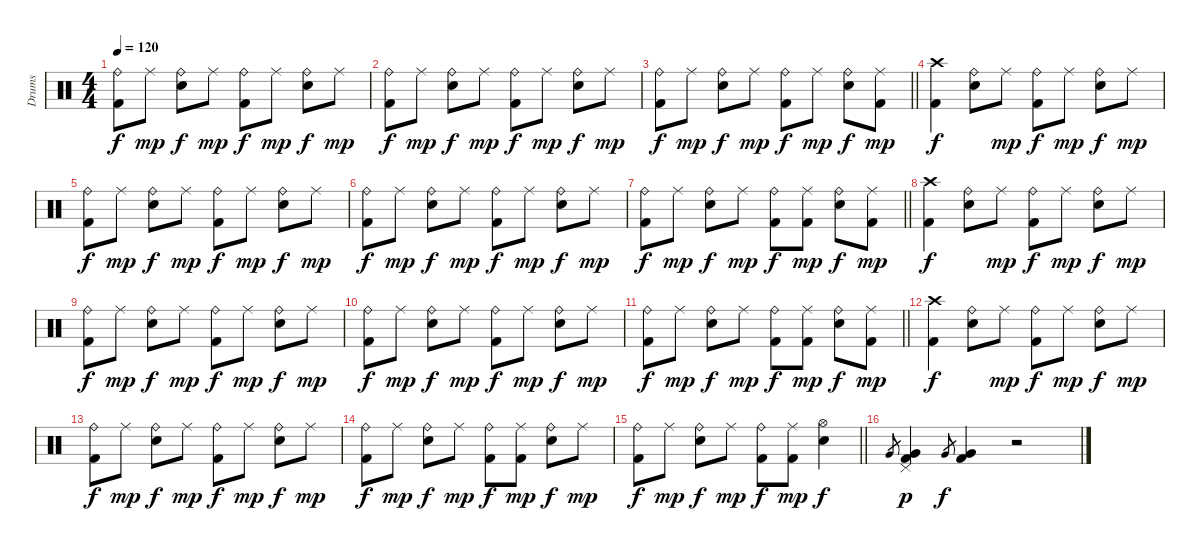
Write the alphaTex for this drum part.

\track ("Drums" "Drums") {instrument percussion}
\staff {score}
\articulation defaults
\ts (4 4)
\tempo 120
\clef neutral
\ks c
("Ride (bell)" "Kick (hit) 2").8{dy f} "Ride (middle)".8{dy mp} ("Ride (bell)" "Snare (hit) 2").8{dy f} "Ride (middle)".8{dy mp} ("Ride (bell)" "Kick (hit) 2").8{dy f} "Ride (middle)".8{dy mp} ("Ride (bell)" "Snare (hit) 2").8{dy f} "Ride (middle)".8{dy mp} |
("Ride (bell)" "Kick (hit) 2").8{dy f} "Ride (middle)".8{dy mp} ("Ride (bell)" "Snare (hit) 2").8{dy f} "Ride (middle)".8{dy mp} ("Ride (bell)" "Kick (hit) 2").8{dy f} "Ride (middle)".8{dy mp} ("Ride (bell)" "Snare (hit) 2").8{dy f} "Ride (middle)".8{dy mp} |
\barLineRight lightlight
("Ride (bell)" "Kick (hit) 2").8{dy f} "Ride (middle)".8{dy mp} ("Ride (bell)" "Snare (hit) 2").8{dy f} "Ride (middle)".8{dy mp} ("Ride (bell)" "Kick (hit) 2").8{dy f} "Ride (middle)".8{dy mp} ("Ride (bell)" "Snare (hit) 2").8{dy f} ("Ride (middle)" "Kick (hit) 2").8{dy mp} |
("Crash high (hit)" "Kick (hit) 2").4{dy f} ("Ride (bell)" "Snare (hit) 2").8 "Ride (middle)".8{dy mp} ("Ride (bell)" "Kick (hit) 2").8{dy f} "Ride (middle)".8{dy mp} ("Ride (bell)" "Snare (hit) 2").8{dy f} "Ride (middle)".8{dy mp} |
("Ride (bell)" "Kick (hit) 2").8{dy f} "Ride (middle)".8{dy mp} ("Ride (bell)" "Snare (hit) 2").8{dy f} "Ride (middle)".8{dy mp} ("Ride (bell)" "Kick (hit) 2").8{dy f} "Ride (middle)".8{dy mp} ("Ride (bell)" "Snare (hit) 2").8{dy f} "Ride (middle)".8{dy mp} |
("Ride (bell)" "Kick (hit) 2").8{dy f} "Ride (middle)".8{dy mp} ("Ride (bell)" "Snare (hit) 2").8{dy f} "Ride (middle)".8{dy mp} ("Ride (bell)" "Kick (hit) 2").8{dy f} "Ride (middle)".8{dy mp} ("Ride (bell)" "Snare (hit) 2").8{dy f} "Ride (middle)".8{dy mp} |
\barLineRight lightlight
("Ride (bell)" "Kick (hit) 2").8{dy f} "Ride (middle)".8{dy mp} ("Ride (bell)" "Snare (hit) 2").8{dy f} "Ride (middle)".8{dy mp} ("Ride (bell)" "Kick (hit) 2").8{dy f} ("Ride (middle)" "Kick (hit) 2").8{dy mp} ("Ride (bell)" "Snare (hit) 2").8{dy f} ("Ride (middle)" "Kick (hit) 2").8{dy mp} |
("Crash high (hit)" "Kick (hit) 2").4{dy f} ("Ride (bell)" "Snare (hit) 2").8 "Ride (middle)".8{dy mp} ("Ride (bell)" "Kick (hit) 2").8{dy f} "Ride (middle)".8{dy mp} ("Ride (bell)" "Snare (hit) 2").8{dy f} "Ride (middle)".8{dy mp} |
("Ride (bell)" "Kick (hit) 2").8{dy f} "Ride (middle)".8{dy mp} ("Ride (bell)" "Snare (hit) 2").8{dy f} "Ride (middle)".8{dy mp} ("Ride (bell)" "Kick (hit) 2").8{dy f} "Ride (middle)".8{dy mp} ("Ride (bell)" "Snare (hit) 2").8{dy f} "Ride (middle)".8{dy mp} |
("Ride (bell)" "Kick (hit) 2").8{dy f} "Ride (middle)".8{dy mp} ("Ride (bell)" "Snare (hit) 2").8{dy f} "Ride (middle)".8{dy mp} ("Ride (bell)" "Kick (hit) 2").8{dy f} "Ride (middle)".8{dy mp} ("Ride (bell)" "Snare (hit) 2").8{dy f} "Ride (middle)".8{dy mp} |
\barLineRight lightlight
("Ride (bell)" "Kick (hit) 2").8{dy f} "Ride (middle)".8{dy mp} ("Ride (bell)" "Snare (hit) 2").8{dy f} "Ride (middle)".8{dy mp} ("Ride (bell)" "Kick (hit) 2").8{dy f} ("Ride (middle)" "Kick (hit) 2").8{dy mp} ("Ride (bell)" "Snare (hit) 2").8{dy f} ("Ride (middle)" "Kick (hit) 2").8{dy mp} |
("Crash high (hit)" "Kick (hit) 2").4{dy f} ("Ride (bell)" "Snare (hit) 2").8 "Ride (middle)".8{dy mp} ("Ride (bell)" "Kick (hit) 2").8{dy f} "Ride (middle)".8{dy mp} ("Ride (bell)" "Snare (hit) 2").8{dy f} "Ride (middle)".8{dy mp} |
("Ride (bell)" "Kick (hit) 2").8{dy f} "Ride (middle)".8{dy mp} ("Ride (bell)" "Snare (hit) 2").8{dy f} "Ride (middle)".8{dy mp} ("Ride (bell)" "Kick (hit) 2").8{dy f} "Ride (middle)".8{dy mp} ("Ride (bell)" "Snare (hit) 2").8{dy f} "Ride (middle)".8{dy mp} |
("Ride (bell)" "Kick (hit) 2").8{dy f} "Ride (middle)".8{dy mp} ("Ride (bell)" "Snare (hit) 2").8{dy f} "Ride (middle)".8{dy mp} ("Ride (bell)" "Kick (hit) 2").8{dy f} ("Ride (middle)" "Kick (hit) 2").8{dy mp} ("Ride (bell)" "Snare (hit) 2").8{dy f} "Ride (middle)".8{dy mp} |
\barLineRight lightlight
("Ride (bell)" "Kick (hit) 2").8{dy f} "Ride (middle)".8{dy mp} ("Ride (bell)" "Snare (hit) 2").8{dy f} "Ride (middle)".8{dy mp} ("Ride (bell)" "Kick (hit) 2").8{dy f} ("Ride (middle)" "Kick (hit) 2").8{dy mp} ("Hi-Hat (open)" "Snare (hit) 2").4{dy f} |
"Very Low Tom (hit)".8{gr} ("Pedal Hi-Hat (hit)" "Very Low Tom (hit)" "Kick (hit) 2").4{dy p} "Very Low Tom (hit)".8{gr dy f} ("Very Low Tom (hit)" "Kick (hit) 2").4 r.2
